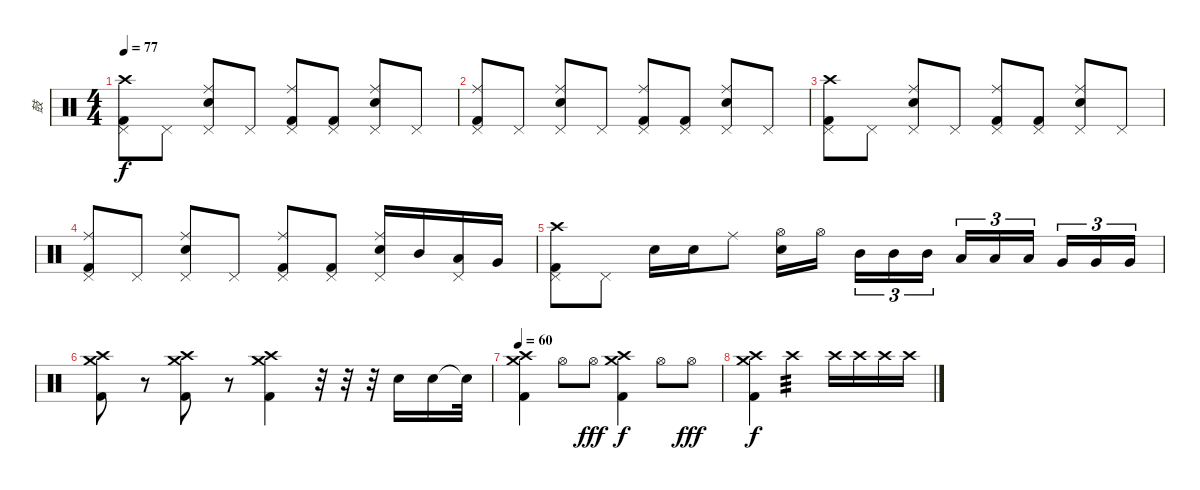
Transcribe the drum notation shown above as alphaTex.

\track ("鼓" "鼓") {instrument percussion}
\staff {score}
\articulation defaults
\ts (4 4)
\tempo 77
\clef neutral
\ks c
("Crash high (hit)" "Pedal Hi-Hat (hit)" "Kick (hit) 2").8{dy f} "Pedal Hi-Hat (hit)".8 ("Ride (middle)" "Pedal Hi-Hat (hit)" "Electric Snare (hit)").8 "Pedal Hi-Hat (hit)".8 ("Ride (middle)" "Pedal Hi-Hat (hit)" "Kick (hit) 2").8 ("Pedal Hi-Hat (hit)" "Kick (hit) 2").8 ("Ride (middle)" "Pedal Hi-Hat (hit)" "Electric Snare (hit)").8 "Pedal Hi-Hat (hit)".8 |
("Ride (middle)" "Pedal Hi-Hat (hit)" "Kick (hit) 2").8 "Pedal Hi-Hat (hit)".8 ("Ride (middle)" "Pedal Hi-Hat (hit)" "Electric Snare (hit)").8 "Pedal Hi-Hat (hit)".8 ("Ride (middle)" "Pedal Hi-Hat (hit)" "Kick (hit) 2").8 ("Pedal Hi-Hat (hit)" "Kick (hit) 2").8 ("Ride (middle)" "Pedal Hi-Hat (hit)" "Electric Snare (hit)").8 "Pedal Hi-Hat (hit)".8 |
("Crash high (hit)" "Pedal Hi-Hat (hit)" "Kick (hit) 2").8 "Pedal Hi-Hat (hit)".8 ("Ride (middle)" "Pedal Hi-Hat (hit)" "Electric Snare (hit)").8 "Pedal Hi-Hat (hit)".8 ("Ride (middle)" "Pedal Hi-Hat (hit)" "Kick (hit) 2").8 ("Pedal Hi-Hat (hit)" "Kick (hit) 2").8 ("Ride (middle)" "Pedal Hi-Hat (hit)" "Electric Snare (hit)").8 "Pedal Hi-Hat (hit)".8 |
("Ride (middle)" "Pedal Hi-Hat (hit)" "Kick (hit) 2").8 "Pedal Hi-Hat (hit)".8 ("Ride (middle)" "Pedal Hi-Hat (hit)" "Electric Snare (hit)").8 "Pedal Hi-Hat (hit)".8 ("Ride (middle)" "Pedal Hi-Hat (hit)" "Kick (hit) 2").8 ("Pedal Hi-Hat (hit)" "Kick (hit) 2").8 ("Ride (middle)" "Pedal Hi-Hat (hit)" "Electric Snare (hit)").16 "Mid Tom (hit)".16 ("Pedal Hi-Hat (hit)" "Low Tom (hit)").16 "Very Low Tom (hit)".16 |
("Crash high (hit)" "Pedal Hi-Hat (hit)" "Kick (hit) 2").8 "Pedal Hi-Hat (hit)".8 "Electric Snare (hit)".16 "Electric Snare (hit)".16 "Ride (middle)".8 ("Electric Snare (hit)" "Hi-Hat (open)").16 "Hi-Hat (open)".16 "Mid Tom (hit)".16{tu (3 2)} "Mid Tom (hit)".16{tu (3 2)} "Mid Tom (hit)".16{tu (3 2)} "Low Tom (hit)".16{tu (3 2)} "Low Tom (hit)".16{tu (3 2)} "Low Tom (hit)".16{tu (3 2)} "Very Low Tom (hit)".16{tu (3 2)} "Very Low Tom (hit)".16{tu (3 2)} "Very Low Tom (hit)".16{tu (3 2)} |
("Crash high (hit)" "Crash medium (hit)" "Kick (hit) 2").8 r.8 ("Crash high (hit)" "Crash medium (hit)" "Kick (hit) 2").8 r.8 ("Crash high (hit)" "Crash medium (hit)" "Kick (hit) 2").4 r.32 r.32 r.32 "Electric Snare (hit)".16 "Electric Snare (hit)".16 "Snare (hit)"{t}.32 |
\tempo 60
("Crash high (hit)" "Crash medium (hit)" "Kick (hit) 2").4 "Hi-Hat (open)".8 "Hi-Hat (open)".8{dy fff} ("Crash high (hit)" "Crash medium (hit)" "Kick (hit) 2").4{dy f} "Hi-Hat (open)".8 "Hi-Hat (open)".8{dy fff} |
("Crash high (hit)" "Crash medium (hit)" "Kick (hit) 2").4{dy f} "Crash high (hit)".2{tp 3} "Crash high (hit)".16 "Crash high (hit)".16 "Crash high (hit)".16 "Crash high (hit)".16
